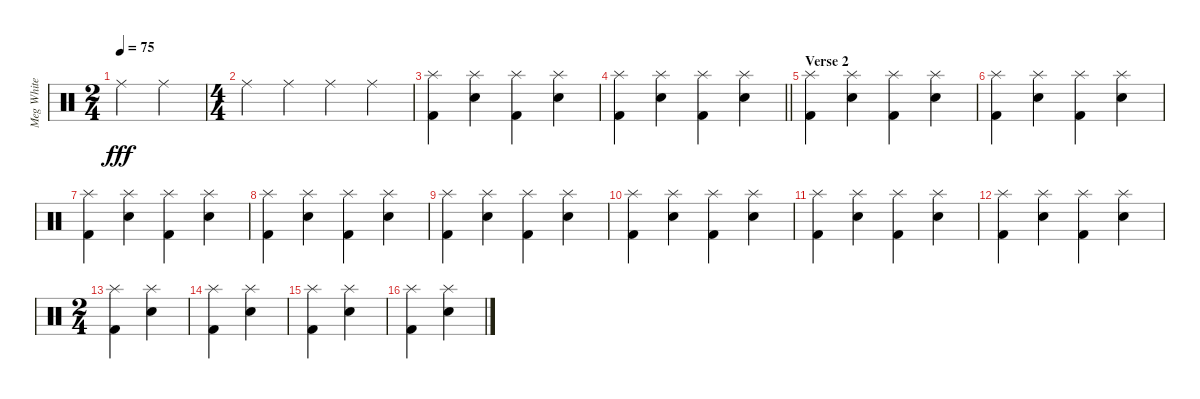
\track ("Meg White (Drums)" "Meg White ") {instrument percussion}
\staff {score}
\articulation defaults
\ts (2 4)
\tempo 75
\clef neutral
\ks c "Ride (middle)".4{dy fff} "Ride (middle)".4
|
\ts (4 4)
"Ride (middle)".4 "Ride (middle)".4 "Ride (middle)".4 "Ride (middle)".4 |
("Kick (hit) 2" "Splash (hit)").4 ("Electric Snare (hit)" "Splash (hit)").4 ("Kick (hit) 2" "Splash (hit)").4 ("Electric Snare (hit)" "Splash (hit)").4 |
\barLineRight lightlight
("Kick (hit) 2" "Splash (hit)").4 ("Electric Snare (hit)" "Splash (hit)").4 ("Kick (hit) 2" "Splash (hit)").4 ("Electric Snare (hit)" "Splash (hit)").4 |
\section ("" "Verse 2")
("Kick (hit) 2" "Splash (hit)").4 ("Electric Snare (hit)" "Splash (hit)").4 ("Kick (hit) 2" "Splash (hit)").4 ("Electric Snare (hit)" "Splash (hit)").4 |
("Kick (hit) 2" "Splash (hit)").4 ("Electric Snare (hit)" "Splash (hit)").4 ("Kick (hit) 2" "Splash (hit)").4 ("Electric Snare (hit)" "Splash (hit)").4 |
("Kick (hit) 2" "Splash (hit)").4 ("Electric Snare (hit)" "Splash (hit)").4 ("Kick (hit) 2" "Splash (hit)").4 ("Electric Snare (hit)" "Splash (hit)").4 |
("Kick (hit) 2" "Splash (hit)").4 ("Electric Snare (hit)" "Splash (hit)").4 ("Kick (hit) 2" "Splash (hit)").4 ("Electric Snare (hit)" "Splash (hit)").4 |
("Kick (hit) 2" "Splash (hit)").4 ("Electric Snare (hit)" "Splash (hit)").4 ("Kick (hit) 2" "Splash (hit)").4 ("Electric Snare (hit)" "Splash (hit)").4 |
("Kick (hit) 2" "Splash (hit)").4 ("Electric Snare (hit)" "Splash (hit)").4 ("Kick (hit) 2" "Splash (hit)").4 ("Electric Snare (hit)" "Splash (hit)").4 |
("Kick (hit) 2" "Splash (hit)").4 ("Electric Snare (hit)" "Splash (hit)").4 ("Kick (hit) 2" "Splash (hit)").4 ("Electric Snare (hit)" "Splash (hit)").4 |
("Kick (hit) 2" "Splash (hit)").4 ("Electric Snare (hit)" "Splash (hit)").4 ("Kick (hit) 2" "Splash (hit)").4 ("Electric Snare (hit)" "Splash (hit)").4 |
\ts (2 4)
("Kick (hit) 2" "Splash (hit)").4 ("Electric Snare (hit)" "Splash (hit)").4 |
("Kick (hit) 2" "Splash (hit)").4 ("Electric Snare (hit)" "Splash (hit)").4 |
("Kick (hit) 2" "Splash (hit)").4 ("Electric Snare (hit)" "Splash (hit)").4 |
("Kick (hit) 2" "Splash (hit)").4 ("Electric Snare (hit)" "Splash (hit)").4
